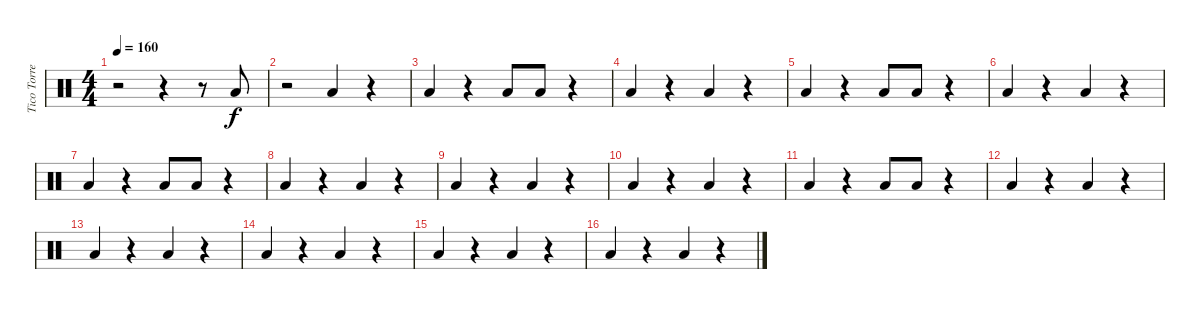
\track ("Tico Torres" "Tico Torre") {instrument percussion}
\staff {score}
\articulation defaults
\ts (4 4)
\tempo 160
\clef neutral
\ks c
r.2{dy f} r.4 r.8 "Low Floor Tom (hit)".8 |
r.2 "Low Floor Tom (hit)".4 r.4 |
"Low Floor Tom (hit)".4 r.4 "Low Floor Tom (hit)".8 "Low Floor Tom (hit)".8 r.4 |
"Low Floor Tom (hit)".4 r.4 "Low Floor Tom (hit)".4 r.4 |
"Low Floor Tom (hit)".4 r.4 "Low Floor Tom (hit)".8 "Low Floor Tom (hit)".8 r.4 |
"Low Floor Tom (hit)".4 r.4 "Low Floor Tom (hit)".4 r.4 |
"Low Floor Tom (hit)".4 r.4 "Low Floor Tom (hit)".8 "Low Floor Tom (hit)".8 r.4 |
"Low Floor Tom (hit)".4 r.4 "Low Floor Tom (hit)".4 r.4 |
"Low Floor Tom (hit)".4 r.4 "Low Floor Tom (hit)".4 r.4 |
"Low Floor Tom (hit)".4 r.4 "Low Floor Tom (hit)".4 r.4 |
"Low Floor Tom (hit)".4 r.4 "Low Floor Tom (hit)".8 "Low Floor Tom (hit)".8 r.4 |
"Low Floor Tom (hit)".4 r.4 "Low Floor Tom (hit)".4 r.4 |
"Low Floor Tom (hit)".4 r.4 "Low Floor Tom (hit)".4 r.4 |
"Low Floor Tom (hit)".4 r.4 "Low Floor Tom (hit)".4 r.4 |
"Low Floor Tom (hit)".4 r.4 "Low Floor Tom (hit)".4 r.4 |
"Low Floor Tom (hit)".4 r.4 "Low Floor Tom (hit)".4 r.4
